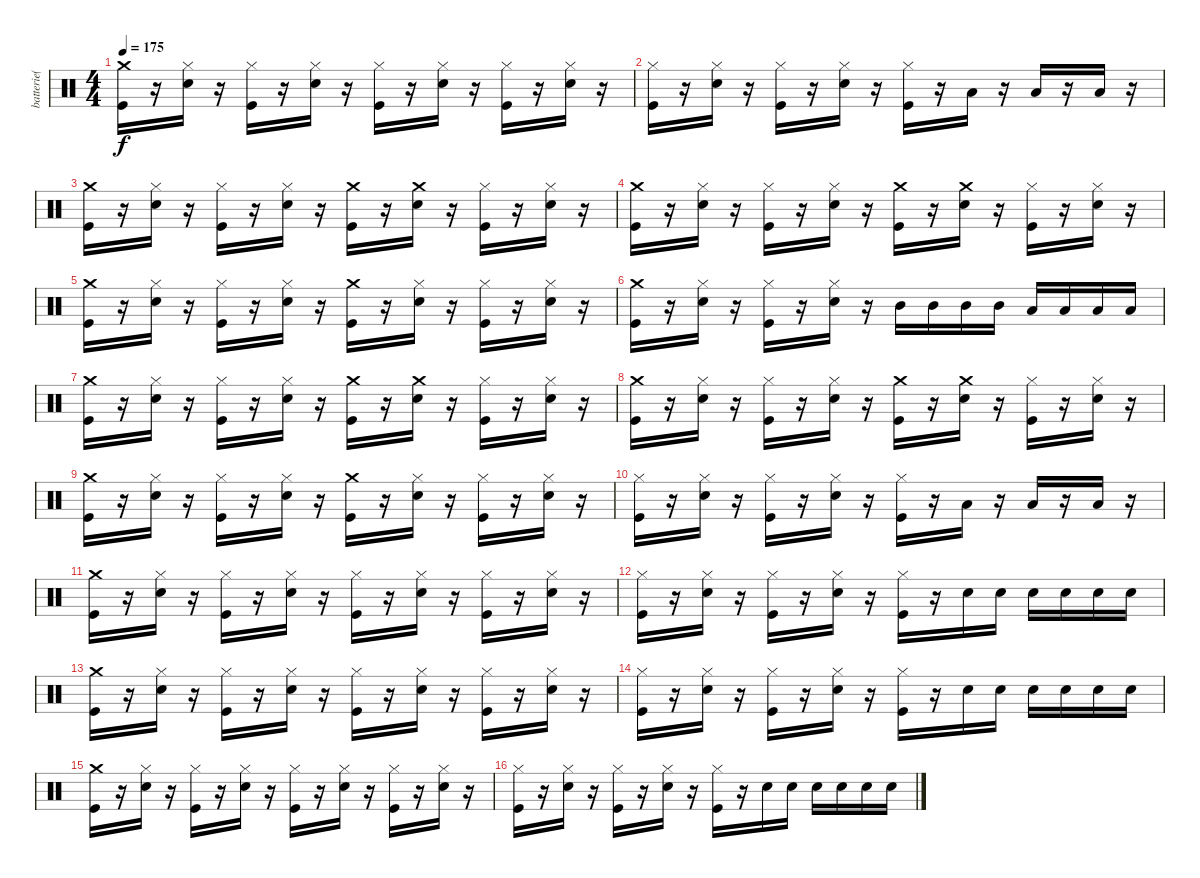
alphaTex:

\track ("batterie( Meggers )" "batterie( ") {instrument percussion}
\staff {score}
\articulation defaults
\ts (4 4)
\tempo 175
\clef neutral
\ks c
("Crash medium (hit)" "Kick (hit)").16{dy f} r.16 ("Hi-Hat (closed)" "Snare (hit) 2").16 r.16 ("Hi-Hat (closed)" "Kick (hit)").16 r.16 ("Hi-Hat (closed)" "Snare (hit) 2").16 r.16 ("Hi-Hat (closed)" "Kick (hit)").16 r.16 ("Hi-Hat (closed)" "Snare (hit) 2").16 r.16 ("Hi-Hat (closed)" "Kick (hit)").16 r.16 ("Hi-Hat (closed)" "Snare (hit) 2").16 r.16 |
("Hi-Hat (closed)" "Kick (hit)").16 r.16 ("Hi-Hat (closed)" "Snare (hit) 2").16 r.16 ("Hi-Hat (closed)" "Kick (hit)").16 r.16 ("Hi-Hat (closed)" "Snare (hit) 2").16 r.16 ("Hi-Hat (closed)" "Kick (hit)").16 r.16 "Low Floor Tom (hit)".16 r.16 "Low Floor Tom (hit)".16 r.16 "Low Floor Tom (hit)".16 r.16 |
("Crash medium (hit)" "Kick (hit)").16 r.16 ("Hi-Hat (closed)" "Snare (hit) 2").16 r.16 ("Hi-Hat (closed)" "Kick (hit)").16 r.16 ("Hi-Hat (closed)" "Snare (hit) 2").16 r.16 ("Crash medium (hit)" "Kick (hit)").16 r.16 ("Crash medium (hit)" "Snare (hit) 2").16 r.16 ("Hi-Hat (closed)" "Kick (hit)").16 r.16 ("Hi-Hat (closed)" "Snare (hit) 2").16 r.16 |
("Crash medium (hit)" "Kick (hit)").16 r.16 ("Hi-Hat (closed)" "Snare (hit) 2").16 r.16 ("Hi-Hat (closed)" "Kick (hit)").16 r.16 ("Hi-Hat (closed)" "Snare (hit) 2").16 r.16 ("Crash medium (hit)" "Kick (hit)").16 r.16 ("Crash medium (hit)" "Snare (hit) 2").16 r.16 ("Hi-Hat (closed)" "Kick (hit)").16 r.16 ("Hi-Hat (closed)" "Snare (hit) 2").16 r.16 |
("Crash medium (hit)" "Kick (hit)").16 r.16 ("Hi-Hat (closed)" "Snare (hit) 2").16 r.16 ("Hi-Hat (closed)" "Kick (hit)").16 r.16 ("Hi-Hat (closed)" "Snare (hit) 2").16 r.16 ("Crash medium (hit)" "Kick (hit)").16 r.16 ("Hi-Hat (closed)" "Snare (hit) 2").16 r.16 ("Hi-Hat (closed)" "Kick (hit)").16 r.16 ("Hi-Hat (closed)" "Snare (hit) 2").16 r.16 |
("Crash medium (hit)" "Kick (hit)").16 r.16 ("Hi-Hat (closed)" "Snare (hit) 2").16 r.16 ("Hi-Hat (closed)" "Kick (hit)").16 r.16 ("Hi-Hat (closed)" "Snare (hit) 2").16 r.16 "Mid Tom (hit)".16 "Mid Tom (hit)".16 "Mid Tom (hit)".16 "Mid Tom (hit)".16 "Low Tom (hit)".16 "Low Tom (hit)".16 "Low Tom (hit)".16 "Low Tom (hit)".16 |
("Crash medium (hit)" "Kick (hit)").16 r.16 ("Hi-Hat (closed)" "Snare (hit) 2").16 r.16 ("Hi-Hat (closed)" "Kick (hit)").16 r.16 ("Hi-Hat (closed)" "Snare (hit) 2").16 r.16 ("Crash medium (hit)" "Kick (hit)").16 r.16 ("Crash medium (hit)" "Snare (hit) 2").16 r.16 ("Hi-Hat (closed)" "Kick (hit)").16 r.16 ("Hi-Hat (closed)" "Snare (hit) 2").16 r.16 |
("Crash medium (hit)" "Kick (hit)").16 r.16 ("Hi-Hat (closed)" "Snare (hit) 2").16 r.16 ("Hi-Hat (closed)" "Kick (hit)").16 r.16 ("Hi-Hat (closed)" "Snare (hit) 2").16 r.16 ("Crash medium (hit)" "Kick (hit)").16 r.16 ("Crash medium (hit)" "Snare (hit) 2").16 r.16 ("Hi-Hat (closed)" "Kick (hit)").16 r.16 ("Hi-Hat (closed)" "Snare (hit) 2").16 r.16 |
("Crash medium (hit)" "Kick (hit)").16 r.16 ("Hi-Hat (closed)" "Snare (hit) 2").16 r.16 ("Hi-Hat (closed)" "Kick (hit)").16 r.16 ("Hi-Hat (closed)" "Snare (hit) 2").16 r.16 ("Crash medium (hit)" "Kick (hit)").16 r.16 ("Hi-Hat (closed)" "Snare (hit) 2").16 r.16 ("Hi-Hat (closed)" "Kick (hit)").16 r.16 ("Hi-Hat (closed)" "Snare (hit) 2").16 r.16 |
("Hi-Hat (closed)" "Kick (hit)").16 r.16 ("Hi-Hat (closed)" "Snare (hit) 2").16 r.16 ("Hi-Hat (closed)" "Kick (hit)").16 r.16 ("Hi-Hat (closed)" "Snare (hit) 2").16 r.16 ("Hi-Hat (closed)" "Kick (hit)").16 r.16 "Low Floor Tom (hit)".16 r.16 "Low Floor Tom (hit)".16 r.16 "Low Floor Tom (hit)".16 r.16 |
("Crash medium (hit)" "Kick (hit)").16 r.16 ("Hi-Hat (closed)" "Snare (hit) 2").16 r.16 ("Hi-Hat (closed)" "Kick (hit)").16 r.16 ("Hi-Hat (closed)" "Snare (hit) 2").16 r.16 ("Hi-Hat (closed)" "Kick (hit)").16 r.16 ("Hi-Hat (closed)" "Snare (hit) 2").16 r.16 ("Hi-Hat (closed)" "Kick (hit)").16 r.16 ("Hi-Hat (closed)" "Snare (hit) 2").16 r.16 |
("Hi-Hat (closed)" "Kick (hit)").16 r.16 ("Hi-Hat (closed)" "Snare (hit) 2").16 r.16 ("Hi-Hat (closed)" "Kick (hit)").16 r.16 ("Hi-Hat (closed)" "Snare (hit) 2").16 r.16 ("Hi-Hat (closed)" "Kick (hit)").16 r.16 "Snare (hit) 2".16 "Snare (hit) 2".16 "Snare (hit) 2".16 "Snare (hit) 2".16 "Snare (hit) 2".16 "Snare (hit) 2".16 |
("Crash medium (hit)" "Kick (hit)").16 r.16 ("Hi-Hat (closed)" "Snare (hit) 2").16 r.16 ("Hi-Hat (closed)" "Kick (hit)").16 r.16 ("Hi-Hat (closed)" "Snare (hit) 2").16 r.16 ("Hi-Hat (closed)" "Kick (hit)").16 r.16 ("Hi-Hat (closed)" "Snare (hit) 2").16 r.16 ("Hi-Hat (closed)" "Kick (hit)").16 r.16 ("Hi-Hat (closed)" "Snare (hit) 2").16 r.16 |
("Hi-Hat (closed)" "Kick (hit)").16 r.16 ("Hi-Hat (closed)" "Snare (hit) 2").16 r.16 ("Hi-Hat (closed)" "Kick (hit)").16 r.16 ("Hi-Hat (closed)" "Snare (hit) 2").16 r.16 ("Hi-Hat (closed)" "Kick (hit)").16 r.16 "Snare (hit) 2".16 "Snare (hit) 2".16 "Snare (hit) 2".16 "Snare (hit) 2".16 "Snare (hit) 2".16 "Snare (hit) 2".16 |
("Crash medium (hit)" "Kick (hit)").16 r.16 ("Hi-Hat (closed)" "Snare (hit) 2").16 r.16 ("Hi-Hat (closed)" "Kick (hit)").16 r.16 ("Hi-Hat (closed)" "Snare (hit) 2").16 r.16 ("Hi-Hat (closed)" "Kick (hit)").16 r.16 ("Hi-Hat (closed)" "Snare (hit) 2").16 r.16 ("Hi-Hat (closed)" "Kick (hit)").16 r.16 ("Hi-Hat (closed)" "Snare (hit) 2").16 r.16 |
("Hi-Hat (closed)" "Kick (hit)").16 r.16 ("Hi-Hat (closed)" "Snare (hit) 2").16 r.16 ("Hi-Hat (closed)" "Kick (hit)").16 r.16 ("Hi-Hat (closed)" "Snare (hit) 2").16 r.16 ("Hi-Hat (closed)" "Kick (hit)").16 r.16 "Snare (hit) 2".16 "Snare (hit) 2".16 "Snare (hit) 2".16 "Snare (hit) 2".16 "Snare (hit) 2".16 "Snare (hit) 2".16
